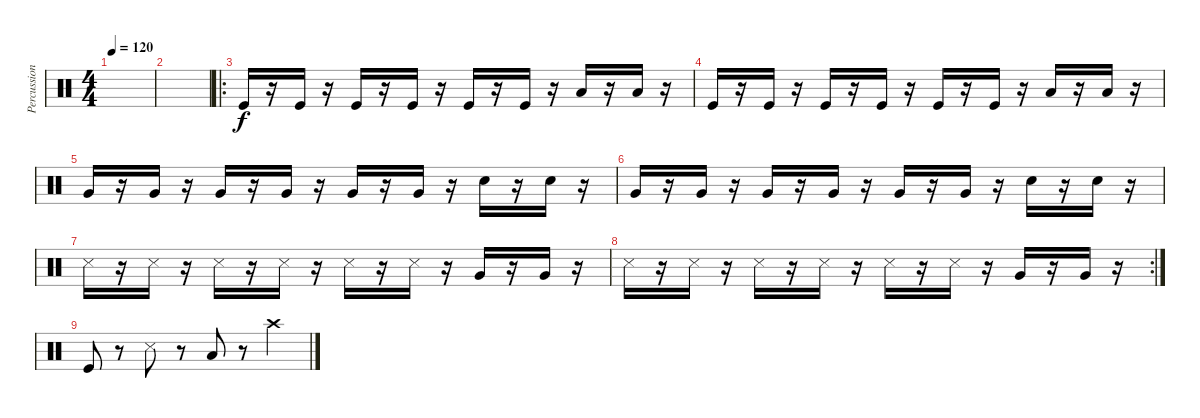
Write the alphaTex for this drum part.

\track ("Percussion" "Percussion") {instrument percussion}
\staff {score}
\articulation defaults
\ts (4 4)
\tempo 120
\clef neutral
\ks c
|
|
\ro "Kick (hit)".16
r.16 "Kick (hit)".16 r.16 "Kick (hit)".16 r.16 "Kick (hit)".16 r.16 "Kick (hit)".16 r.16 "Kick (hit)".16 r.16 "Low Floor Tom (hit)".16 r.16 "Low Floor Tom (hit)".16 r.16 |
"Kick (hit)".16 r.16 "Kick (hit)".16 r.16 "Kick (hit)".16 r.16 "Kick (hit)".16 r.16 "Kick (hit)".16 r.16 "Kick (hit)".16 r.16 "Low Floor Tom (hit)".16 r.16 "Low Floor Tom (hit)".16 r.16 |
"Very Low Tom (hit)".16 r.16 "Very Low Tom (hit)".16 r.16 "Very Low Tom (hit)".16 r.16 "Very Low Tom (hit)".16 r.16 "Very Low Tom (hit)".16 r.16 "Very Low Tom (hit)".16 r.16 "Electric Snare (hit)".16 r.16 "Electric Snare (hit)".16 r.16 |
"Very Low Tom (hit)".16 r.16 "Very Low Tom (hit)".16 r.16 "Very Low Tom (hit)".16 r.16 "Very Low Tom (hit)".16 r.16 "Very Low Tom (hit)".16 r.16 "Very Low Tom (hit)".16 r.16 "Electric Snare (hit)".16 r.16 "Electric Snare (hit)".16 r.16 |
"Snare (side stick) 3".16 r.16 "Snare (side stick) 3".16 r.16 "Snare (side stick) 3".16 r.16 "Snare (side stick) 3".16 r.16 "Snare (side stick) 3".16 r.16 "Snare (side stick) 3".16 r.16 "Very Low Tom (hit)".16 r.16 "Very Low Tom (hit)".16 r.16 |
\rc 2 "Snare (side stick) 3".16
r.16 "Snare (side stick) 3".16 r.16 "Snare (side stick) 3".16 r.16 "Snare (side stick) 3".16 r.16 "Snare (side stick) 3".16 r.16 "Snare (side stick) 3".16 r.16 "Very Low Tom (hit)".16 r.16 "Very Low Tom (hit)".16 r.16 |
"Kick (hit)".8 r.8 "Snare (side stick) 3".8 r.8 "Low Floor Tom (hit)".8 r.8 "Crash high (hit)".4
